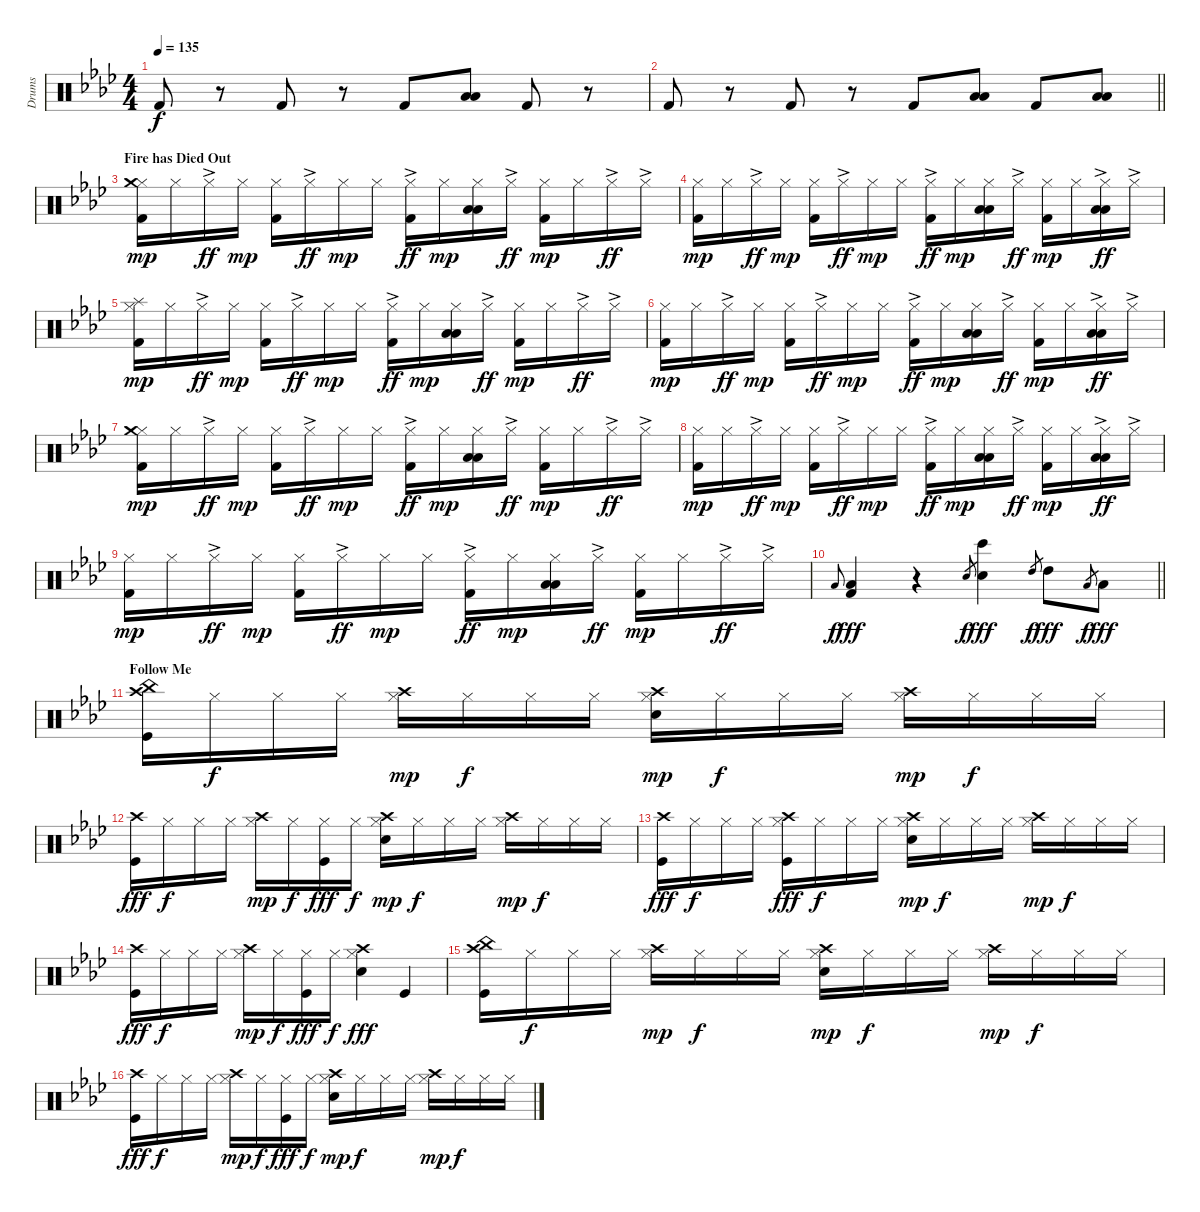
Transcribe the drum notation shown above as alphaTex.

\track ("Drums" "Drums") {instrument percussion}
\staff {score}
\articulation defaults
\ts (4 4)
\tempo 135
\clef neutral
\ks ab "Kick (hit) 2".8{dy f}
r.8 "Kick (hit) 2".8 r.8 "Kick (hit) 2".8 ("Low Tom (hit)" "Low Floor Tom (hit)").8 "Kick (hit) 2".8 r.8 |
\barLineRight lightlight "Kick (hit) 2".8
r.8 "Kick (hit) 2".8 r.8 "Kick (hit) 2".8 ("Low Tom (hit)" "Low Floor Tom (hit)").8 "Kick (hit) 2".8 ("Low Tom (hit)" "Low Floor Tom (hit)").8 |
\section ("" "Fire has Died Out")
("Kick (hit) 2" "Hi-Hat (closed)" "Crash medium (hit)").16{dy mp} "Hi-Hat (closed)".16 "Hi-Hat (closed)"{ac}.16{dy ff} "Hi-Hat (closed)".16{dy mp} ("Kick (hit) 2" "Hi-Hat (closed)").16 "Hi-Hat (closed)"{ac}.16{dy ff} "Hi-Hat (closed)".16{dy mp} "Hi-Hat (closed)".16 ("Kick (hit) 2" "Hi-Hat (closed)"{ac}).16{dy ff} "Hi-Hat (closed)".16{dy mp} ("Low Tom (hit)" "Hi-Hat (closed)" "Low Floor Tom (hit)").16 "Hi-Hat (closed)"{ac}.16{dy ff} ("Kick (hit) 2" "Hi-Hat (closed)").16{dy mp} "Hi-Hat (closed)".16 "Hi-Hat (closed)"{ac}.16{dy ff} "Hi-Hat (closed)"{ac}.16 |
("Kick (hit) 2" "Hi-Hat (closed)").16{dy mp} "Hi-Hat (closed)".16 "Hi-Hat (closed)"{ac}.16{dy ff} "Hi-Hat (closed)".16{dy mp} ("Kick (hit) 2" "Hi-Hat (closed)").16 "Hi-Hat (closed)"{ac}.16{dy ff} "Hi-Hat (closed)".16{dy mp} "Hi-Hat (closed)".16 ("Kick (hit) 2" "Hi-Hat (closed)"{ac}).16{dy ff} "Hi-Hat (closed)".16{dy mp} ("Low Floor Tom (hit)" "Hi-Hat (closed)" "Low Tom (hit)").16 "Hi-Hat (closed)"{ac}.16{dy ff} ("Kick (hit) 2" "Hi-Hat (closed)").16{dy mp} "Hi-Hat (closed)".16 ("Low Floor Tom (hit)" "Hi-Hat (closed)"{ac} "Low Tom (hit)").16{dy ff} "Hi-Hat (closed)"{ac}.16 |
("Kick (hit) 2" "Hi-Hat (closed)" "Splash (hit)").16{dy mp} "Hi-Hat (closed)".16 "Hi-Hat (closed)"{ac}.16{dy ff} "Hi-Hat (closed)".16{dy mp} ("Kick (hit) 2" "Hi-Hat (closed)").16 "Hi-Hat (closed)"{ac}.16{dy ff} "Hi-Hat (closed)".16{dy mp} "Hi-Hat (closed)".16 ("Kick (hit) 2" "Hi-Hat (closed)"{ac}).16{dy ff} "Hi-Hat (closed)".16{dy mp} ("Low Floor Tom (hit)" "Hi-Hat (closed)" "Low Tom (hit)").16 "Hi-Hat (closed)"{ac}.16{dy ff} ("Kick (hit) 2" "Hi-Hat (closed)").16{dy mp} "Hi-Hat (closed)".16 "Hi-Hat (closed)"{ac}.16{dy ff} "Hi-Hat (closed)"{ac}.16 |
("Kick (hit) 2" "Hi-Hat (closed)").16{dy mp} "Hi-Hat (closed)".16 "Hi-Hat (closed)"{ac}.16{dy ff} "Hi-Hat (closed)".16{dy mp} ("Kick (hit) 2" "Hi-Hat (closed)").16 "Hi-Hat (closed)"{ac}.16{dy ff} "Hi-Hat (closed)".16{dy mp} "Hi-Hat (closed)".16 ("Kick (hit) 2" "Hi-Hat (closed)"{ac}).16{dy ff} "Hi-Hat (closed)".16{dy mp} ("Low Floor Tom (hit)" "Hi-Hat (closed)" "Low Tom (hit)").16 "Hi-Hat (closed)"{ac}.16{dy ff} ("Kick (hit) 2" "Hi-Hat (closed)").16{dy mp} "Hi-Hat (closed)".16 ("Low Floor Tom (hit)" "Hi-Hat (closed)"{ac} "Low Tom (hit)").16{dy ff} "Hi-Hat (closed)"{ac}.16 |
("Kick (hit) 2" "Hi-Hat (closed)" "Crash medium (hit)").16{dy mp} "Hi-Hat (closed)".16 "Hi-Hat (closed)"{ac}.16{dy ff} "Hi-Hat (closed)".16{dy mp} ("Kick (hit) 2" "Hi-Hat (closed)").16 "Hi-Hat (closed)"{ac}.16{dy ff} "Hi-Hat (closed)".16{dy mp} "Hi-Hat (closed)".16 ("Kick (hit) 2" "Hi-Hat (closed)"{ac}).16{dy ff} "Hi-Hat (closed)".16{dy mp} ("Low Floor Tom (hit)" "Hi-Hat (closed)" "Low Tom (hit)").16 "Hi-Hat (closed)"{ac}.16{dy ff} ("Kick (hit) 2" "Hi-Hat (closed)").16{dy mp} "Hi-Hat (closed)".16 "Hi-Hat (closed)"{ac}.16{dy ff} "Hi-Hat (closed)"{ac}.16 |
("Kick (hit) 2" "Hi-Hat (closed)").16{dy mp} "Hi-Hat (closed)".16 "Hi-Hat (closed)"{ac}.16{dy ff} "Hi-Hat (closed)".16{dy mp} ("Kick (hit) 2" "Hi-Hat (closed)").16 "Hi-Hat (closed)"{ac}.16{dy ff} "Hi-Hat (closed)".16{dy mp} "Hi-Hat (closed)".16 ("Kick (hit) 2" "Hi-Hat (closed)"{ac}).16{dy ff} "Hi-Hat (closed)".16{dy mp} ("Low Floor Tom (hit)" "Hi-Hat (closed)" "Low Tom (hit)").16 "Hi-Hat (closed)"{ac}.16{dy ff} ("Kick (hit) 2" "Hi-Hat (closed)").16{dy mp} "Hi-Hat (closed)".16 ("Low Floor Tom (hit)" "Hi-Hat (closed)"{ac} "Low Tom (hit)").16{dy ff} "Hi-Hat (closed)"{ac}.16 |
("Kick (hit) 2" "Hi-Hat (closed)").16{dy mp} "Hi-Hat (closed)".16 "Hi-Hat (closed)"{ac}.16{dy ff} "Hi-Hat (closed)".16{dy mp} ("Kick (hit) 2" "Hi-Hat (closed)").16 "Hi-Hat (closed)"{ac}.16{dy ff} "Hi-Hat (closed)".16{dy mp} "Hi-Hat (closed)".16 ("Kick (hit) 2" "Hi-Hat (closed)"{ac}).16{dy ff} "Hi-Hat (closed)".16{dy mp} ("Low Floor Tom (hit)" "Hi-Hat (closed)" "Low Tom (hit)").16 "Hi-Hat (closed)"{ac}.16{dy ff} ("Kick (hit) 2" "Hi-Hat (closed)").16{dy mp} "Hi-Hat (closed)".16 "Hi-Hat (closed)"{ac}.16{dy ff} "Hi-Hat (closed)"{ac}.16 |
\barLineRight lightlight "Low Tom (hit)".8{gr onbeat dy f}
("Kick (hit) 2" "Low Tom (hit)").4{dy fff} r.4 "Electric Snare (hit)".8{gr dy f} ("Electric Snare (hit)" "Bongo High (hit)").4{dy fff} "High Tom (hit)".8{gr dy f} "High Tom (hit)".8{dy fff} "Low Tom (hit)".8{gr dy f} "Low Tom (hit)".8{dy fff} |
\section ("" "Follow Me")
("Crash high (hit)" "Kick (hit)" "China (hit)").16 "Hi-Hat (closed)".16{dy f} "Hi-Hat (closed)".16 "Hi-Hat (closed)".16 ("Hi-Hat (closed)" "Crash high (hit)").16{dy mp} "Hi-Hat (closed)".16{dy f} "Hi-Hat (closed)".16 "Hi-Hat (closed)".16 ("Hi-Hat (closed)" "Snare (hit) 2" "Crash high (hit)").16{dy mp} "Hi-Hat (closed)".16{dy f} "Hi-Hat (closed)".16 "Hi-Hat (closed)".16 ("Hi-Hat (closed)" "Crash high (hit)").16{dy mp} "Hi-Hat (closed)".16{dy f} "Hi-Hat (closed)".16 "Hi-Hat (closed)".16 |
("Crash high (hit)" "Kick (hit)").16{dy fff} "Hi-Hat (closed)".16{dy f} "Hi-Hat (closed)".16 "Hi-Hat (closed)".16 ("Hi-Hat (closed)" "Crash high (hit)").16{dy mp} "Hi-Hat (closed)".16{dy f} ("Hi-Hat (closed)" "Kick (hit)").16{dy fff} "Hi-Hat (closed)".16{dy f} ("Hi-Hat (closed)" "Snare (hit) 2" "Crash high (hit)").16{dy mp} "Hi-Hat (closed)".16{dy f} "Hi-Hat (closed)".16 "Hi-Hat (closed)".16 ("Hi-Hat (closed)" "Crash high (hit)").16{dy mp} "Hi-Hat (closed)".16{dy f} "Hi-Hat (closed)".16 "Hi-Hat (closed)".16 |
("Crash high (hit)" "Kick (hit)").16{dy fff} "Hi-Hat (closed)".16{dy f} "Hi-Hat (closed)".16 "Hi-Hat (closed)".16 ("Hi-Hat (closed)" "Crash high (hit)" "Kick (hit)").16{dy fff} "Hi-Hat (closed)".16{dy f} "Hi-Hat (closed)".16 "Hi-Hat (closed)".16 ("Hi-Hat (closed)" "Snare (hit) 2" "Crash high (hit)").16{dy mp} "Hi-Hat (closed)".16{dy f} "Hi-Hat (closed)".16 "Hi-Hat (closed)".16 ("Hi-Hat (closed)" "Crash high (hit)").16{dy mp} "Hi-Hat (closed)".16{dy f} "Hi-Hat (closed)".16 "Hi-Hat (closed)".16 |
("Crash high (hit)" "Kick (hit)").16{dy fff} "Hi-Hat (closed)".16{dy f} "Hi-Hat (closed)".16 "Hi-Hat (closed)".16 ("Hi-Hat (closed)" "Crash high (hit)").16{dy mp} "Hi-Hat (closed)".16{dy f} ("Hi-Hat (closed)" "Kick (hit)").16{dy fff} "Hi-Hat (closed)".16{dy f} ("Hi-Hat (closed)" "Snare (hit) 2" "Crash high (hit)").4{dy fff} "Kick (hit)".4 |
("Crash high (hit)" "Kick (hit)" "China (hit)").16 "Hi-Hat (closed)".16{dy f} "Hi-Hat (closed)".16 "Hi-Hat (closed)".16 ("Hi-Hat (closed)" "Crash high (hit)").16{dy mp} "Hi-Hat (closed)".16{dy f} "Hi-Hat (closed)".16 "Hi-Hat (closed)".16 ("Hi-Hat (closed)" "Snare (hit) 2" "Crash high (hit)").16{dy mp} "Hi-Hat (closed)".16{dy f} "Hi-Hat (closed)".16 "Hi-Hat (closed)".16 ("Hi-Hat (closed)" "Crash high (hit)").16{dy mp} "Hi-Hat (closed)".16{dy f} "Hi-Hat (closed)".16 "Hi-Hat (closed)".16 |
("Crash high (hit)" "Kick (hit)").16{dy fff} "Hi-Hat (closed)".16{dy f} "Hi-Hat (closed)".16 "Hi-Hat (closed)".16 ("Hi-Hat (closed)" "Crash high (hit)").16{dy mp} "Hi-Hat (closed)".16{dy f} ("Hi-Hat (closed)" "Kick (hit)").16{dy fff} "Hi-Hat (closed)".16{dy f} ("Hi-Hat (closed)" "Snare (hit) 2" "Crash high (hit)").16{dy mp} "Hi-Hat (closed)".16{dy f} "Hi-Hat (closed)".16 "Hi-Hat (closed)".16 ("Hi-Hat (closed)" "Crash high (hit)").16{dy mp} "Hi-Hat (closed)".16{dy f} "Hi-Hat (closed)".16 "Hi-Hat (closed)".16
